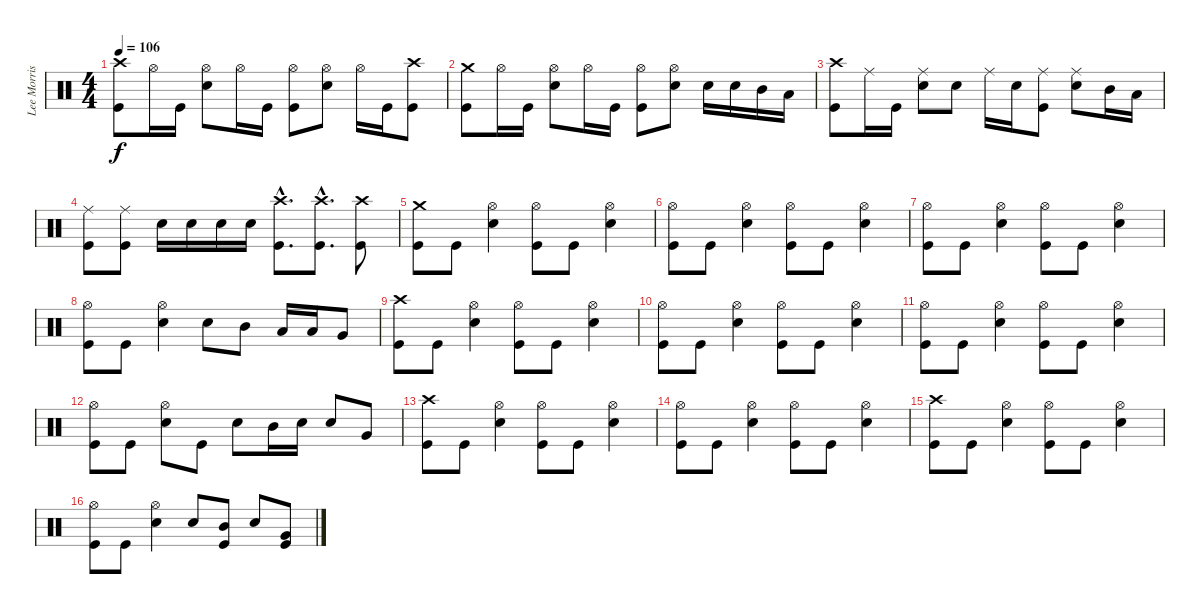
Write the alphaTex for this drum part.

\track ("Lee Morris" "Lee Morris") {instrument percussion}
\staff {score}
\articulation defaults
\ts (4 4)
\tempo 106
\clef neutral
\ks c
("Kick (hit)" "Crash high (hit)").8{dy f} "Hi-Hat (open)".16 "Kick (hit)".16 ("Snare (hit) 2" "Hi-Hat (open)").8 "Hi-Hat (open)".16 "Kick (hit)".16 ("Kick (hit)" "Hi-Hat (open)").8 ("Snare (hit) 2" "Hi-Hat (open)").8 "Hi-Hat (open)".16 "Kick (hit)".16 ("Kick (hit)" "Crash high (hit)").8 |
("Kick (hit)" "Crash medium (hit)").8 "Hi-Hat (open)".16 "Kick (hit)".16 ("Snare (hit) 2" "Hi-Hat (open)").8 "Hi-Hat (open)".16 "Kick (hit)".16 ("Kick (hit)" "Hi-Hat (open)").8 ("Snare (hit) 2" "Hi-Hat (open)").8 "Snare (hit) 2".16 "Snare (hit) 2".16 "Mid Tom (hit)".16 "Low Tom (hit)".16 |
("Kick (hit)" "Crash high (hit)").8 "Ride (middle)".16 "Kick (hit)".16 ("Snare (hit) 2" "Ride (middle)").8 "Snare (hit) 2".8 "Ride (middle)".16 "Snare (hit) 2".16 ("Kick (hit)" "Ride (middle)").8 ("Snare (hit) 2" "Ride (middle)").8 "Mid Tom (hit)".16 "Low Tom (hit)".16 |
("Kick (hit)" "Ride (middle)").8 ("Kick (hit)" "Ride (middle)").8 "Snare (hit) 2".16 "Snare (hit) 2".16 "Snare (hit) 2".16 "Snare (hit) 2".16 ("Kick (hit)"{hac} "Crash high (hit)"{hac}).8{d} ("Kick (hit)"{hac} "Crash high (hit)"{hac}).8{d} ("Kick (hit)" "Crash high (hit)").8 |
("Kick (hit)" "Crash medium (hit)").8 "Kick (hit)".8 ("Snare (hit) 2" "Hi-Hat (open)").4 ("Kick (hit)" "Hi-Hat (open)").8 "Kick (hit)".8 ("Snare (hit) 2" "Hi-Hat (open)").4 |
("Kick (hit)" "Hi-Hat (open)").8 "Kick (hit)".8 ("Snare (hit) 2" "Hi-Hat (open)").4 ("Kick (hit)" "Hi-Hat (open)").8 "Kick (hit)".8 ("Snare (hit) 2" "Hi-Hat (open)").4 |
("Kick (hit)" "Hi-Hat (open)").8 "Kick (hit)".8 ("Snare (hit) 2" "Hi-Hat (open)").4 ("Kick (hit)" "Hi-Hat (open)").8 "Kick (hit)".8 ("Snare (hit) 2" "Hi-Hat (open)").4 |
("Kick (hit)" "Hi-Hat (open)").8 "Kick (hit)".8 ("Snare (hit) 2" "Hi-Hat (open)").4 "Snare (hit) 2".8 "Mid Tom (hit)".8 "Low Tom (hit)".16 "Low Tom (hit)".16 "Very Low Tom (hit)".8 |
("Kick (hit)" "Crash high (hit)").8 "Kick (hit)".8 ("Snare (hit) 2" "Hi-Hat (open)").4 ("Kick (hit)" "Hi-Hat (open)").8 "Kick (hit)".8 ("Snare (hit) 2" "Hi-Hat (open)").4 |
("Kick (hit)" "Hi-Hat (open)").8 "Kick (hit)".8 ("Snare (hit) 2" "Hi-Hat (open)").4 ("Kick (hit)" "Hi-Hat (open)").8 "Kick (hit)".8 ("Snare (hit) 2" "Hi-Hat (open)").4 |
("Kick (hit)" "Hi-Hat (open)").8 "Kick (hit)".8 ("Snare (hit) 2" "Hi-Hat (open)").4 ("Kick (hit)" "Hi-Hat (open)").8 "Kick (hit)".8 ("Snare (hit) 2" "Hi-Hat (open)").4 |
("Kick (hit)" "Hi-Hat (open)").8 "Kick (hit)".8 ("Snare (hit) 2" "Hi-Hat (open)").8 "Kick (hit)".8 "Snare (hit) 2".8 "Mid Tom (hit)".16 "Snare (hit) 2".16 "Snare (hit) 2".8 "Very Low Tom (hit)".8 |
("Kick (hit)" "Crash high (hit)").8 "Kick (hit)".8 ("Snare (hit) 2" "Hi-Hat (open)").4 ("Kick (hit)" "Hi-Hat (open)").8 "Kick (hit)".8 ("Snare (hit) 2" "Hi-Hat (open)").4 |
("Kick (hit)" "Hi-Hat (open)").8 "Kick (hit)".8 ("Snare (hit) 2" "Hi-Hat (open)").4 ("Kick (hit)" "Hi-Hat (open)").8 "Kick (hit)".8 ("Snare (hit) 2" "Hi-Hat (open)").4 |
("Kick (hit)" "Crash high (hit)").8 "Kick (hit)".8 ("Snare (hit) 2" "Hi-Hat (open)").4 ("Kick (hit)" "Hi-Hat (open)").8 "Kick (hit)".8 ("Snare (hit) 2" "Hi-Hat (open)").4 |
("Kick (hit)" "Hi-Hat (open)").8 "Kick (hit)".8 ("Snare (hit) 2" "Hi-Hat (open)").4 "Snare (hit) 2".8 ("Kick (hit)" "Mid Tom (hit)").8 "Snare (hit) 2".8 ("Kick (hit)" "Very Low Tom (hit)").8
